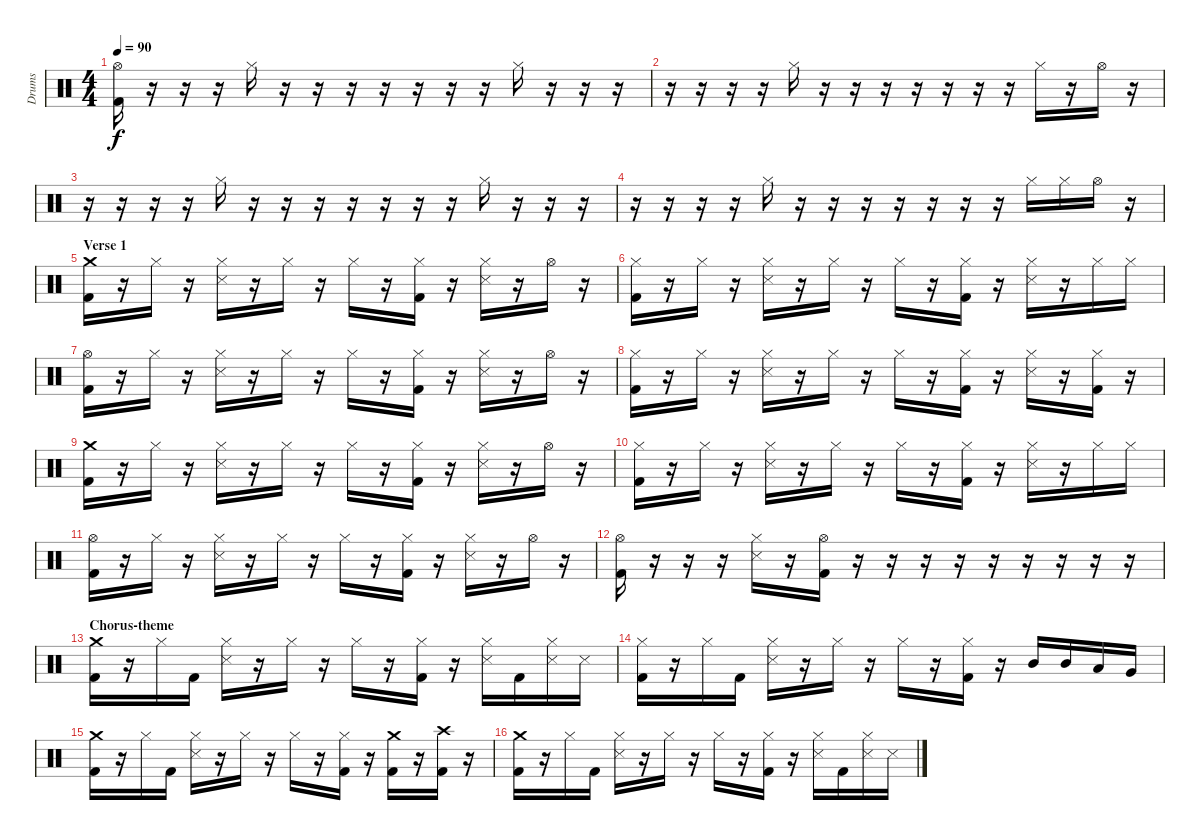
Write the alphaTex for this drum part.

\track ("Drums" "Drums") {instrument percussion}
\staff {score}
\articulation defaults
\ts (4 4)
\tempo 90
\clef neutral
\ks c
("Hi-Hat (open)" "Kick (hit) 2").16{dy f} r.16 r.16 r.16 "Hi-Hat (closed)".16 r.16 r.16 r.16 r.16 r.16 r.16 r.16 "Hi-Hat (closed)".16 r.16 r.16 r.16 |
r.16 r.16 r.16 r.16 "Hi-Hat (closed)".16 r.16 r.16 r.16 r.16 r.16 r.16 r.16 "Hi-Hat (closed)".16 r.16 "Hi-Hat (open)".16 r.16 |
r.16 r.16 r.16 r.16 "Hi-Hat (closed)".16 r.16 r.16 r.16 r.16 r.16 r.16 r.16 "Hi-Hat (closed)".16 r.16 r.16 r.16 |
r.16 r.16 r.16 r.16 "Hi-Hat (closed)".16 r.16 r.16 r.16 r.16 r.16 r.16 r.16 "Hi-Hat (closed)".16 "Hi-Hat (closed)".16 "Hi-Hat (open)".16 r.16 |
\section ("" "Verse 1")
("Crash medium (hit)" "Kick (hit) 2").16 r.16 "Hi-Hat (closed)".16 r.16 ("Hi-Hat (closed)" "Snare (side stick) 3").16 r.16 "Hi-Hat (closed)".16 r.16 "Hi-Hat (closed)".16 r.16 ("Hi-Hat (closed)" "Kick (hit) 2").16 r.16 ("Hi-Hat (closed)" "Snare (side stick) 3").16 r.16 "Hi-Hat (open)".16 r.16 |
("Hi-Hat (closed)" "Kick (hit) 2").16 r.16 "Hi-Hat (closed)".16 r.16 ("Hi-Hat (closed)" "Snare (side stick) 3").16 r.16 "Hi-Hat (closed)".16 r.16 "Hi-Hat (closed)".16 r.16 ("Hi-Hat (closed)" "Kick (hit) 2").16 r.16 ("Hi-Hat (closed)" "Snare (side stick) 3").16 r.16 "Hi-Hat (closed)".16 "Hi-Hat (closed)".16 |
("Hi-Hat (open)" "Kick (hit) 2").16 r.16 "Hi-Hat (closed)".16 r.16 ("Hi-Hat (closed)" "Snare (side stick) 3").16 r.16 "Hi-Hat (closed)".16 r.16 "Hi-Hat (closed)".16 r.16 ("Hi-Hat (closed)" "Kick (hit) 2").16 r.16 ("Hi-Hat (closed)" "Snare (side stick) 3").16 r.16 "Hi-Hat (open)".16 r.16 |
("Hi-Hat (closed)" "Kick (hit) 2").16 r.16 "Hi-Hat (closed)".16 r.16 ("Hi-Hat (closed)" "Snare (side stick) 3").16 r.16 "Hi-Hat (closed)".16 r.16 "Hi-Hat (closed)".16 r.16 ("Hi-Hat (closed)" "Kick (hit) 2").16 r.16 ("Hi-Hat (closed)" "Snare (side stick) 3").16 r.16 ("Hi-Hat (closed)" "Kick (hit) 2").16 r.16 |
("Crash medium (hit)" "Kick (hit) 2").16 r.16 "Hi-Hat (closed)".16 r.16 ("Hi-Hat (closed)" "Snare (side stick) 3").16 r.16 "Hi-Hat (closed)".16 r.16 "Hi-Hat (closed)".16 r.16 ("Hi-Hat (closed)" "Kick (hit) 2").16 r.16 ("Hi-Hat (closed)" "Snare (side stick) 3").16 r.16 "Hi-Hat (open)".16 r.16 |
("Hi-Hat (closed)" "Kick (hit) 2").16 r.16 "Hi-Hat (closed)".16 r.16 ("Hi-Hat (closed)" "Snare (side stick) 3").16 r.16 "Hi-Hat (closed)".16 r.16 "Hi-Hat (closed)".16 r.16 ("Hi-Hat (closed)" "Kick (hit) 2").16 r.16 ("Hi-Hat (closed)" "Snare (side stick) 3").16 r.16 "Hi-Hat (closed)".16 "Hi-Hat (closed)".16 |
("Hi-Hat (open)" "Kick (hit) 2").16 r.16 "Hi-Hat (closed)".16 r.16 ("Hi-Hat (closed)" "Snare (side stick) 3").16 r.16 "Hi-Hat (closed)".16 r.16 "Hi-Hat (closed)".16 r.16 ("Hi-Hat (closed)" "Kick (hit) 2").16 r.16 ("Hi-Hat (closed)" "Snare (side stick) 3").16 r.16 "Hi-Hat (open)".16 r.16 |
("Hi-Hat (open)" "Kick (hit) 2").16 r.16 r.16 r.16 ("Hi-Hat (closed)" "Snare (side stick) 3").16 r.16 ("Hi-Hat (open)" "Kick (hit) 2").16 r.16 r.16 r.16 r.16 r.16 r.16 r.16 r.16 r.16 |
\section ("" "Chorus-theme")
("Crash medium (hit)" "Kick (hit) 2").16 r.16 "Hi-Hat (closed)".16 "Kick (hit) 2".16 ("Hi-Hat (closed)" "Snare (side stick) 3").16 r.16 "Hi-Hat (closed)".16 r.16 "Hi-Hat (closed)".16 r.16 ("Hi-Hat (closed)" "Kick (hit) 2").16 r.16 ("Hi-Hat (closed)" "Snare (side stick) 3").16 "Kick (hit) 2".16 ("Hi-Hat (closed)" "Snare (side stick) 3").16 "Snare (side stick) 3".16 |
("Hi-Hat (closed)" "Kick (hit) 2").16 r.16 "Hi-Hat (closed)".16 "Kick (hit) 2".16 ("Hi-Hat (closed)" "Snare (side stick) 3").16 r.16 "Hi-Hat (closed)".16 r.16 "Hi-Hat (closed)".16 r.16 ("Hi-Hat (closed)" "Kick (hit) 2").16 r.16 "Mid Tom (hit)".16 "Mid Tom (hit)".16 "Low Tom (hit)".16 "Very Low Tom (hit)".16 |
("Crash medium (hit)" "Kick (hit) 2").16 r.16 "Hi-Hat (closed)".16 "Kick (hit) 2".16 ("Hi-Hat (closed)" "Snare (side stick) 3").16 r.16 "Hi-Hat (closed)".16 r.16 "Hi-Hat (closed)".16 r.16 ("Hi-Hat (closed)" "Kick (hit) 2").16 r.16 ("Crash medium (hit)" "Kick (hit) 2").16 r.16 ("Crash high (hit)" "Kick (hit) 2").16 r.16 |
("Crash medium (hit)" "Kick (hit) 2").16 r.16 "Hi-Hat (closed)".16 "Kick (hit) 2".16 ("Hi-Hat (closed)" "Snare (side stick) 3").16 r.16 "Hi-Hat (closed)".16 r.16 "Hi-Hat (closed)".16 r.16 ("Hi-Hat (closed)" "Kick (hit) 2").16 r.16 ("Hi-Hat (closed)" "Snare (side stick) 3").16 "Kick (hit) 2".16 ("Hi-Hat (closed)" "Snare (side stick) 3").16 "Snare (side stick) 3".16
